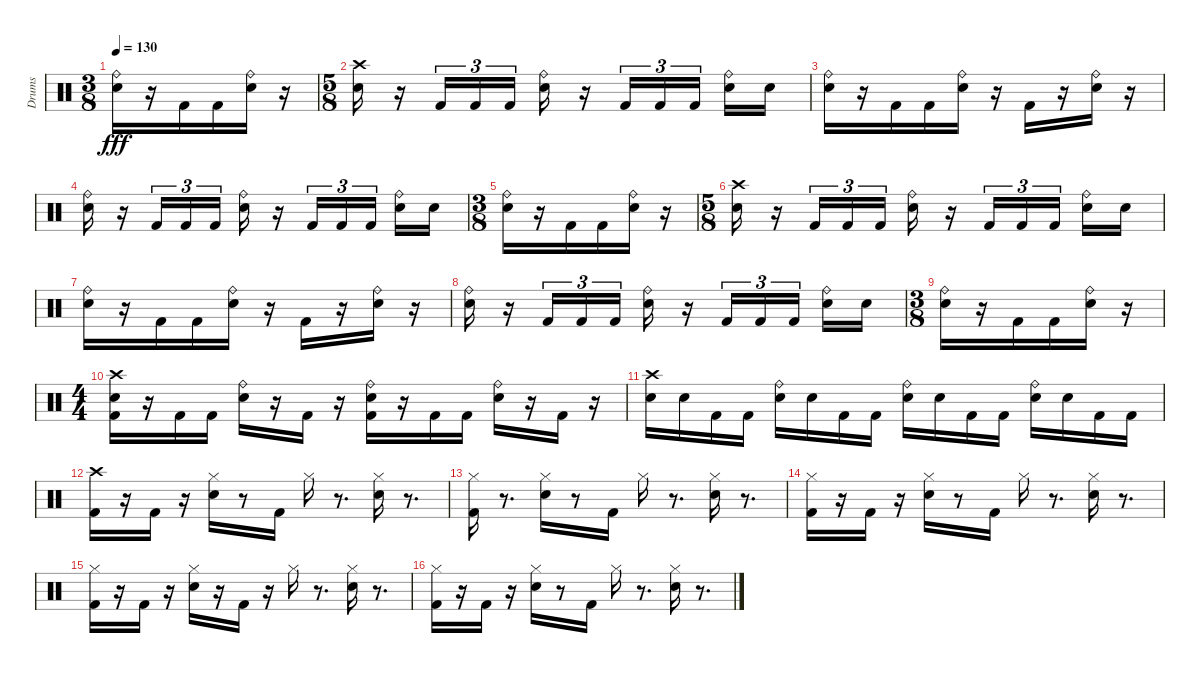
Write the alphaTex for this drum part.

\track ("Drums" "Drums") {instrument percussion}
\staff {score}
\articulation defaults
\ts (3 8)
\tempo 130
\clef neutral
\ks c
("Ride (bell)" "Electric Snare (hit)").16{dy fff} r.16 "Kick (hit) 2".16 "Kick (hit) 2".16 ("Ride (bell)" "Electric Snare (hit)").16 r.16 |
\ts (5 8)
("Electric Snare (hit)" "Crash high (hit)").16 r.16 "Kick (hit) 2".16{tu (3 2)} "Kick (hit) 2".16{tu (3 2)} "Kick (hit) 2".16{tu (3 2)} ("Electric Snare (hit)" "Ride (bell)").16 r.16 "Kick (hit) 2".16{tu (3 2)} "Kick (hit) 2".16{tu (3 2)} "Kick (hit) 2".16{tu (3 2)} ("Electric Snare (hit)" "Ride (bell)").16 "Electric Snare (hit)".16 |
("Electric Snare (hit)" "Ride (bell)").16 r.16 "Kick (hit) 2".16 "Kick (hit) 2".16 ("Electric Snare (hit)" "Ride (bell)").16 r.16 "Kick (hit) 2".16 r.16 ("Electric Snare (hit)" "Ride (bell)").16 r.16 |
("Electric Snare (hit)" "Ride (bell)").16 r.16 "Kick (hit) 2".16{tu (3 2)} "Kick (hit) 2".16{tu (3 2)} "Kick (hit) 2".16{tu (3 2)} ("Electric Snare (hit)" "Ride (bell)").16 r.16 "Kick (hit) 2".16{tu (3 2)} "Kick (hit) 2".16{tu (3 2)} "Kick (hit) 2".16{tu (3 2)} ("Electric Snare (hit)" "Ride (bell)").16 "Electric Snare (hit)".16 |
\ts (3 8)
("Electric Snare (hit)" "Ride (bell)").16 r.16 "Kick (hit) 2".16 "Kick (hit) 2".16 ("Electric Snare (hit)" "Ride (bell)").16 r.16 |
\ts (5 8)
("Crash high (hit)" "Electric Snare (hit)").16 r.16 "Kick (hit) 2".16{tu (3 2)} "Kick (hit) 2".16{tu (3 2)} "Kick (hit) 2".16{tu (3 2)} ("Ride (bell)" "Electric Snare (hit)").16 r.16 "Kick (hit) 2".16{tu (3 2)} "Kick (hit) 2".16{tu (3 2)} "Kick (hit) 2".16{tu (3 2)} ("Ride (bell)" "Electric Snare (hit)").16 "Electric Snare (hit)".16 |
("Ride (bell)" "Electric Snare (hit)").16 r.16 "Kick (hit) 2".16 "Kick (hit) 2".16 ("Ride (bell)" "Electric Snare (hit)").16 r.16 "Kick (hit) 2".16 r.16 ("Ride (bell)" "Electric Snare (hit)").16 r.16 |
("Ride (bell)" "Electric Snare (hit)").16 r.16 "Kick (hit) 2".16{tu (3 2)} "Kick (hit) 2".16{tu (3 2)} "Kick (hit) 2".16{tu (3 2)} ("Ride (bell)" "Electric Snare (hit)").16 r.16 "Kick (hit) 2".16{tu (3 2)} "Kick (hit) 2".16{tu (3 2)} "Kick (hit) 2".16{tu (3 2)} ("Ride (bell)" "Electric Snare (hit)").16 "Electric Snare (hit)".16 |
\ts (3 8)
("Ride (bell)" "Electric Snare (hit)").16 r.16 "Kick (hit) 2".16 "Kick (hit) 2".16 ("Ride (bell)" "Electric Snare (hit)").16 r.16 |
\ts (4 4)
("Kick (hit) 2" "Electric Snare (hit)" "Crash high (hit)").16 r.16 "Kick (hit) 2".16 "Kick (hit) 2".16 ("Electric Snare (hit)" "Ride (bell)").16 r.16 "Kick (hit) 2".16 r.16 ("Kick (hit) 2" "Electric Snare (hit)" "Ride (bell)").16 r.16 "Kick (hit) 2".16 "Kick (hit) 2".16 ("Electric Snare (hit)" "Ride (bell)").16 r.16 "Kick (hit) 2".16 r.16 |
("Electric Snare (hit)" "Crash high (hit)").16 "Electric Snare (hit)".16 "Kick (hit) 2".16 "Kick (hit) 2".16 ("Electric Snare (hit)" "Ride (bell)").16 "Electric Snare (hit)".16 "Kick (hit) 2".16 "Kick (hit) 2".16 ("Electric Snare (hit)" "Ride (bell)").16 "Electric Snare (hit)".16 "Kick (hit) 2".16 "Kick (hit) 2".16 ("Electric Snare (hit)" "Ride (bell)").16 "Electric Snare (hit)".16 "Kick (hit) 2".16 "Kick (hit) 2".16 |
("Kick (hit) 2" "Crash high (hit)").16 r.16 "Kick (hit) 2".16 r.16 ("Hi-Hat (closed)" "Electric Snare (hit)").16 r.8 "Kick (hit) 2".16 "Hi-Hat (closed)".16 r.8{d} ("Hi-Hat (closed)" "Electric Snare (hit)").16 r.8{d} |
("Kick (hit) 2" "Hi-Hat (closed)").16 r.8{d} ("Electric Snare (hit)" "Hi-Hat (closed)").16 r.8 "Kick (hit) 2".16 "Hi-Hat (closed)".16 r.8{d} ("Hi-Hat (closed)" "Electric Snare (hit)").16 r.8{d} |
("Hi-Hat (closed)" "Kick (hit) 2").16 r.16 "Kick (hit) 2".16 r.16 ("Hi-Hat (closed)" "Electric Snare (hit)").16 r.8 "Kick (hit) 2".16 "Hi-Hat (closed)".16 r.8{d} ("Electric Snare (hit)" "Hi-Hat (closed)").16 r.8{d} |
("Hi-Hat (closed)" "Kick (hit) 2").16 r.16 "Kick (hit) 2".16 r.16 ("Hi-Hat (closed)" "Electric Snare (hit)").16 r.16 "Kick (hit) 2".16 r.16 "Hi-Hat (closed)".16 r.8{d} ("Electric Snare (hit)" "Hi-Hat (closed)").16 r.8{d} |
("Kick (hit) 2" "Hi-Hat (closed)").16 r.16 "Kick (hit) 2".16 r.16 ("Electric Snare (hit)" "Hi-Hat (closed)").16 r.8 "Kick (hit) 2".16 "Hi-Hat (closed)".16 r.8{d} ("Electric Snare (hit)" "Hi-Hat (closed)").16 r.8{d}
